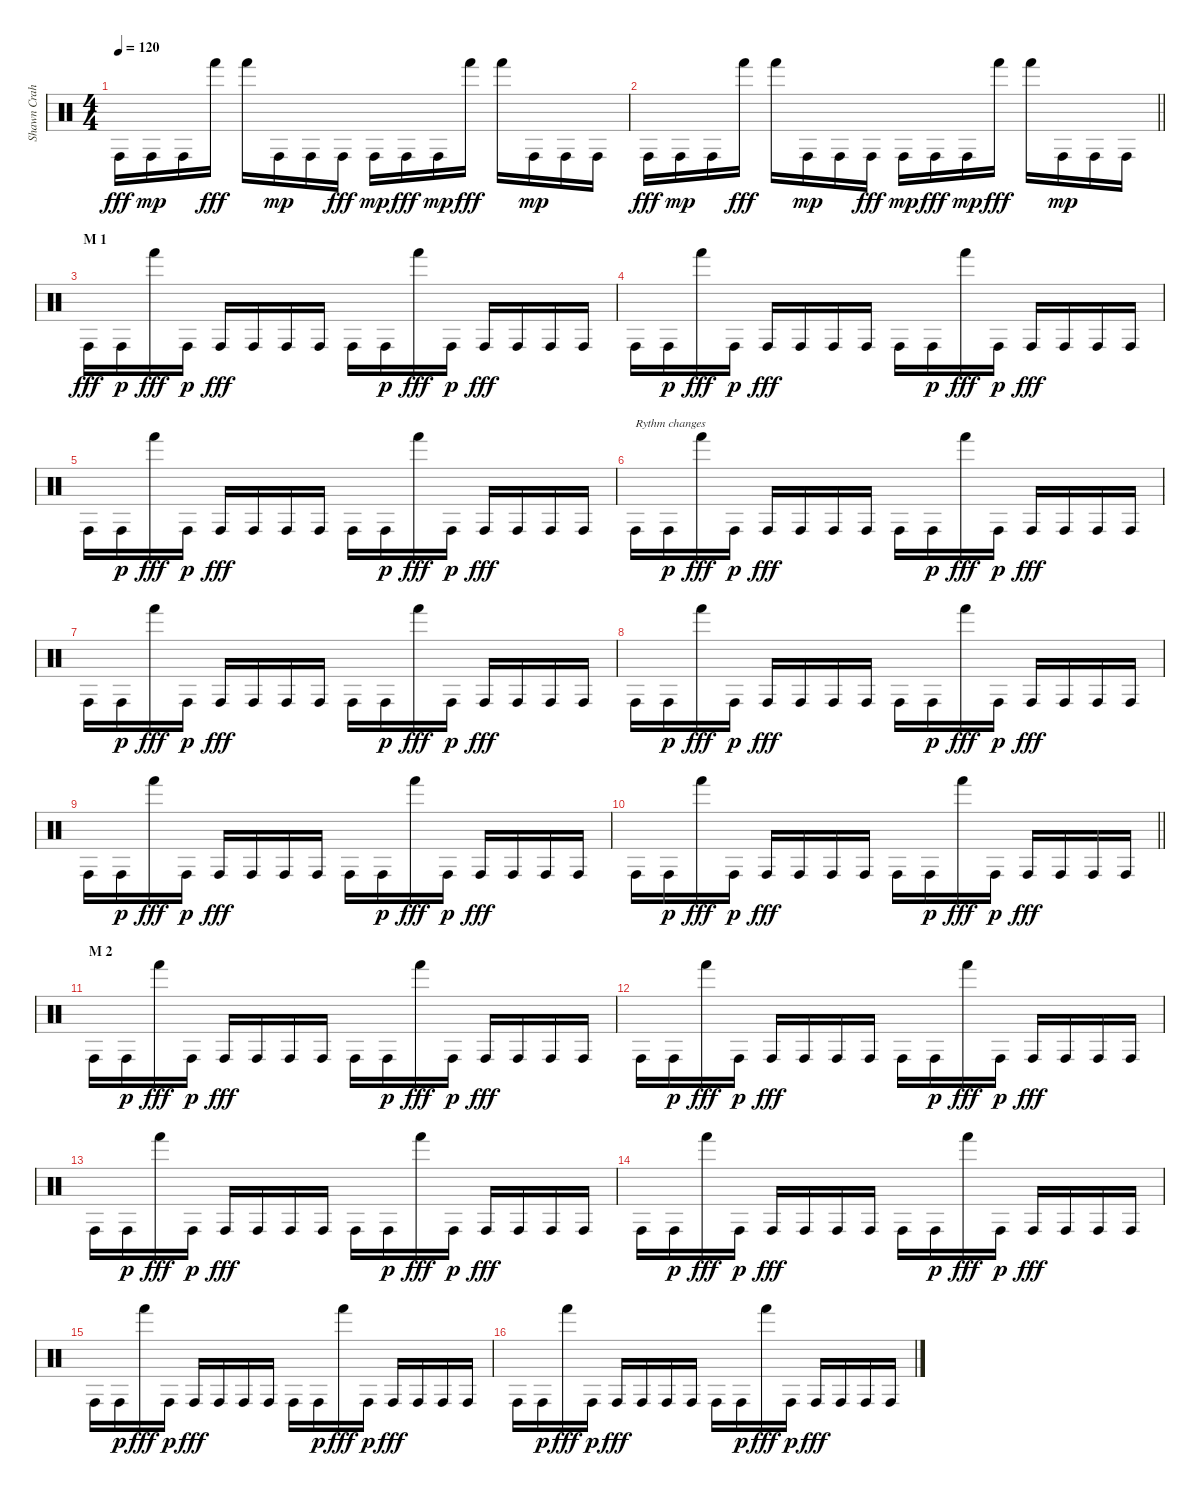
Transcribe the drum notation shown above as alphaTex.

\track ("Shawn Crahan" "Shawn Crah") {instrument percussion}
\staff {score}
\articulation defaults
\ts (4 4)
\tempo 120
\clef neutral
\ks c "Conga high (hit)".16{dy fff} "Conga high (hit)".16{dy mp} "Conga high (hit)".16 "Hand (hit)".16{dy fff} "Hand (hit)".16 "Conga high (hit)".16{dy mp} "Conga high (hit)".16 "Conga high (hit)".16{dy fff} "Conga high (hit)".16{dy mp} "Conga high (hit)".16{dy fff} "Conga high (hit)".16{dy mp} "Hand (hit)".16{dy fff} "Hand (hit)".16 "Conga high (hit)".16{dy mp} "Conga high (hit)".16 "Conga high (hit)".16
|
\barLineRight lightlight "Conga high (hit)".16{dy fff} "Conga high (hit)".16{dy mp} "Conga high (hit)".16 "Hand (hit)".16{dy fff} "Hand (hit)".16 "Conga high (hit)".16{dy mp} "Conga high (hit)".16 "Conga high (hit)".16{dy fff} "Conga high (hit)".16{dy mp} "Conga high (hit)".16{dy fff} "Conga high (hit)".16{dy mp} "Hand (hit)".16{dy fff} "Hand (hit)".16 "Conga high (hit)".16{dy mp} "Conga high (hit)".16 "Conga high (hit)".16
|
\section ("" "M 1")
"Conga high (hit)".16{dy fff} "Conga high (hit)".16{dy p} "Hand (hit)".16{dy fff} "Conga high (hit)".16{dy p} "Conga high (hit)".16{dy fff} "Conga high (hit)".16 "Conga high (hit)".16 "Conga high (hit)".16 "Conga high (hit)".16 "Conga high (hit)".16{dy p} "Hand (hit)".16{dy fff} "Conga high (hit)".16{dy p} "Conga high (hit)".16{dy fff} "Conga high (hit)".16 "Conga high (hit)".16 "Conga high (hit)".16 |
"Conga high (hit)".16 "Conga high (hit)".16{dy p} "Hand (hit)".16{dy fff} "Conga high (hit)".16{dy p} "Conga high (hit)".16{dy fff} "Conga high (hit)".16 "Conga high (hit)".16 "Conga high (hit)".16 "Conga high (hit)".16 "Conga high (hit)".16{dy p} "Hand (hit)".16{dy fff} "Conga high (hit)".16{dy p} "Conga high (hit)".16{dy fff} "Conga high (hit)".16 "Conga high (hit)".16 "Conga high (hit)".16 |
"Conga high (hit)".16 "Conga high (hit)".16{dy p} "Hand (hit)".16{dy fff} "Conga high (hit)".16{dy p} "Conga high (hit)".16{dy fff} "Conga high (hit)".16 "Conga high (hit)".16 "Conga high (hit)".16 "Conga high (hit)".16 "Conga high (hit)".16{dy p} "Hand (hit)".16{dy fff} "Conga high (hit)".16{dy p} "Conga high (hit)".16{dy fff} "Conga high (hit)".16 "Conga high (hit)".16 "Conga high (hit)".16 |
"Conga high (hit)".16{txt "Rythm changes"} "Conga high (hit)".16{dy p} "Hand (hit)".16{dy fff} "Conga high (hit)".16{dy p} "Conga high (hit)".16{dy fff} "Conga high (hit)".16 "Conga high (hit)".16 "Conga high (hit)".16 "Conga high (hit)".16 "Conga high (hit)".16{dy p} "Hand (hit)".16{dy fff} "Conga high (hit)".16{dy p} "Conga high (hit)".16{dy fff} "Conga high (hit)".16 "Conga high (hit)".16 "Conga high (hit)".16 |
"Conga high (hit)".16 "Conga high (hit)".16{dy p} "Hand (hit)".16{dy fff} "Conga high (hit)".16{dy p} "Conga high (hit)".16{dy fff} "Conga high (hit)".16 "Conga high (hit)".16 "Conga high (hit)".16 "Conga high (hit)".16 "Conga high (hit)".16{dy p} "Hand (hit)".16{dy fff} "Conga high (hit)".16{dy p} "Conga high (hit)".16{dy fff} "Conga high (hit)".16 "Conga high (hit)".16 "Conga high (hit)".16 |
"Conga high (hit)".16 "Conga high (hit)".16{dy p} "Hand (hit)".16{dy fff} "Conga high (hit)".16{dy p} "Conga high (hit)".16{dy fff} "Conga high (hit)".16 "Conga high (hit)".16 "Conga high (hit)".16 "Conga high (hit)".16 "Conga high (hit)".16{dy p} "Hand (hit)".16{dy fff} "Conga high (hit)".16{dy p} "Conga high (hit)".16{dy fff} "Conga high (hit)".16 "Conga high (hit)".16 "Conga high (hit)".16 |
"Conga high (hit)".16 "Conga high (hit)".16{dy p} "Hand (hit)".16{dy fff} "Conga high (hit)".16{dy p} "Conga high (hit)".16{dy fff} "Conga high (hit)".16 "Conga high (hit)".16 "Conga high (hit)".16 "Conga high (hit)".16 "Conga high (hit)".16{dy p} "Hand (hit)".16{dy fff} "Conga high (hit)".16{dy p} "Conga high (hit)".16{dy fff} "Conga high (hit)".16 "Conga high (hit)".16 "Conga high (hit)".16 |
\barLineRight lightlight "Conga high (hit)".16 "Conga high (hit)".16{dy p} "Hand (hit)".16{dy fff} "Conga high (hit)".16{dy p} "Conga high (hit)".16{dy fff} "Conga high (hit)".16 "Conga high (hit)".16 "Conga high (hit)".16 "Conga high (hit)".16 "Conga high (hit)".16{dy p} "Hand (hit)".16{dy fff} "Conga high (hit)".16{dy p} "Conga high (hit)".16{dy fff} "Conga high (hit)".16 "Conga high (hit)".16 "Conga high (hit)".16
|
\section ("" "M 2")
"Conga high (hit)".16 "Conga high (hit)".16{dy p} "Hand (hit)".16{dy fff} "Conga high (hit)".16{dy p} "Conga high (hit)".16{dy fff} "Conga high (hit)".16 "Conga high (hit)".16 "Conga high (hit)".16 "Conga high (hit)".16 "Conga high (hit)".16{dy p} "Hand (hit)".16{dy fff} "Conga high (hit)".16{dy p} "Conga high (hit)".16{dy fff} "Conga high (hit)".16 "Conga high (hit)".16 "Conga high (hit)".16 |
"Conga high (hit)".16 "Conga high (hit)".16{dy p} "Hand (hit)".16{dy fff} "Conga high (hit)".16{dy p} "Conga high (hit)".16{dy fff} "Conga high (hit)".16 "Conga high (hit)".16 "Conga high (hit)".16 "Conga high (hit)".16 "Conga high (hit)".16{dy p} "Hand (hit)".16{dy fff} "Conga high (hit)".16{dy p} "Conga high (hit)".16{dy fff} "Conga high (hit)".16 "Conga high (hit)".16 "Conga high (hit)".16 |
"Conga high (hit)".16 "Conga high (hit)".16{dy p} "Hand (hit)".16{dy fff} "Conga high (hit)".16{dy p} "Conga high (hit)".16{dy fff} "Conga high (hit)".16 "Conga high (hit)".16 "Conga high (hit)".16 "Conga high (hit)".16 "Conga high (hit)".16{dy p} "Hand (hit)".16{dy fff} "Conga high (hit)".16{dy p} "Conga high (hit)".16{dy fff} "Conga high (hit)".16 "Conga high (hit)".16 "Conga high (hit)".16 |
"Conga high (hit)".16 "Conga high (hit)".16{dy p} "Hand (hit)".16{dy fff} "Conga high (hit)".16{dy p} "Conga high (hit)".16{dy fff} "Conga high (hit)".16 "Conga high (hit)".16 "Conga high (hit)".16 "Conga high (hit)".16 "Conga high (hit)".16{dy p} "Hand (hit)".16{dy fff} "Conga high (hit)".16{dy p} "Conga high (hit)".16{dy fff} "Conga high (hit)".16 "Conga high (hit)".16 "Conga high (hit)".16 |
"Conga high (hit)".16 "Conga high (hit)".16{dy p} "Hand (hit)".16{dy fff} "Conga high (hit)".16{dy p} "Conga high (hit)".16{dy fff} "Conga high (hit)".16 "Conga high (hit)".16 "Conga high (hit)".16 "Conga high (hit)".16 "Conga high (hit)".16{dy p} "Hand (hit)".16{dy fff} "Conga high (hit)".16{dy p} "Conga high (hit)".16{dy fff} "Conga high (hit)".16 "Conga high (hit)".16 "Conga high (hit)".16 |
"Conga high (hit)".16 "Conga high (hit)".16{dy p} "Hand (hit)".16{dy fff} "Conga high (hit)".16{dy p} "Conga high (hit)".16{dy fff} "Conga high (hit)".16 "Conga high (hit)".16 "Conga high (hit)".16 "Conga high (hit)".16 "Conga high (hit)".16{dy p} "Hand (hit)".16{dy fff} "Conga high (hit)".16{dy p} "Conga high (hit)".16{dy fff} "Conga high (hit)".16 "Conga high (hit)".16 "Conga high (hit)".16
